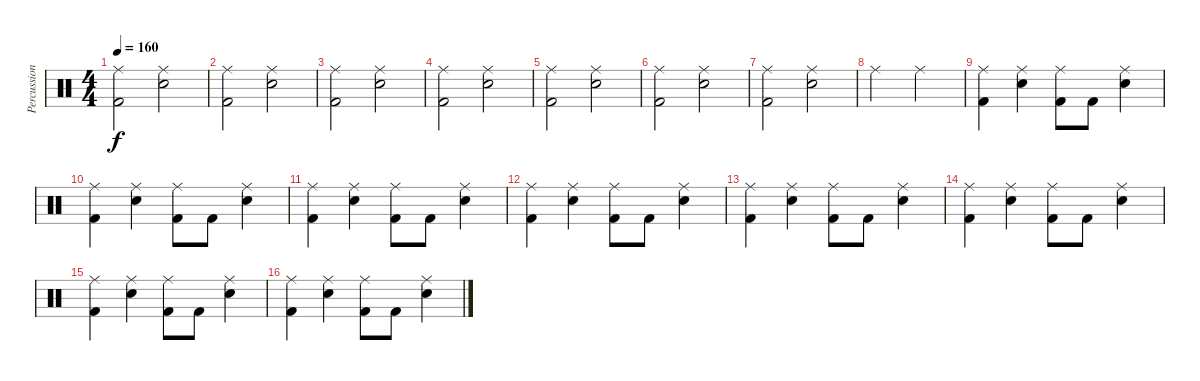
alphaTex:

\track ("Percussion" "Percussion") {instrument percussion}
\staff {score}
\articulation defaults
\ts (4 4)
\tempo 160
\clef neutral
\ks c
("Ride (middle)" "Kick (hit) 2").2{dy f} ("Ride (middle)" "Electric Snare (hit)").2 |
("Ride (middle)" "Kick (hit) 2").2 ("Ride (middle)" "Electric Snare (hit)").2 |
("Ride (middle)" "Kick (hit) 2").2 ("Ride (middle)" "Electric Snare (hit)").2 |
("Ride (middle)" "Kick (hit) 2").2 ("Ride (middle)" "Electric Snare (hit)").2 |
("Ride (middle)" "Kick (hit) 2").2 ("Ride (middle)" "Electric Snare (hit)").2 |
("Ride (middle)" "Kick (hit) 2").2 ("Ride (middle)" "Electric Snare (hit)").2 |
("Ride (middle)" "Kick (hit) 2").2 ("Ride (middle)" "Electric Snare (hit)").2 |
"Ride (middle)".2 "Ride (middle)".2 |
("Ride (middle)" "Kick (hit) 2").4 ("Ride (middle)" "Electric Snare (hit)").4 ("Ride (middle)" "Kick (hit) 2").8 "Kick (hit) 2".8 ("Ride (middle)" "Electric Snare (hit)").4 |
("Ride (middle)" "Kick (hit) 2").4 ("Ride (middle)" "Electric Snare (hit)").4 ("Ride (middle)" "Kick (hit) 2").8 "Kick (hit) 2".8 ("Ride (middle)" "Electric Snare (hit)").4 |
("Ride (middle)" "Kick (hit) 2").4 ("Ride (middle)" "Electric Snare (hit)").4 ("Ride (middle)" "Kick (hit) 2").8 "Kick (hit) 2".8 ("Ride (middle)" "Electric Snare (hit)").4 |
("Ride (middle)" "Kick (hit) 2").4 ("Ride (middle)" "Electric Snare (hit)").4 ("Ride (middle)" "Kick (hit) 2").8 "Kick (hit) 2".8 ("Ride (middle)" "Electric Snare (hit)").4 |
("Ride (middle)" "Kick (hit) 2").4 ("Ride (middle)" "Electric Snare (hit)").4 ("Ride (middle)" "Kick (hit) 2").8 "Kick (hit) 2".8 ("Ride (middle)" "Electric Snare (hit)").4 |
("Ride (middle)" "Kick (hit) 2").4 ("Ride (middle)" "Electric Snare (hit)").4 ("Ride (middle)" "Kick (hit) 2").8 "Kick (hit) 2".8 ("Ride (middle)" "Electric Snare (hit)").4 |
("Ride (middle)" "Kick (hit) 2").4 ("Ride (middle)" "Electric Snare (hit)").4 ("Ride (middle)" "Kick (hit) 2").8 "Kick (hit) 2".8 ("Ride (middle)" "Electric Snare (hit)").4 |
("Ride (middle)" "Kick (hit) 2").4 ("Ride (middle)" "Electric Snare (hit)").4 ("Ride (middle)" "Kick (hit) 2").8 "Kick (hit) 2".8 ("Ride (middle)" "Electric Snare (hit)").4
